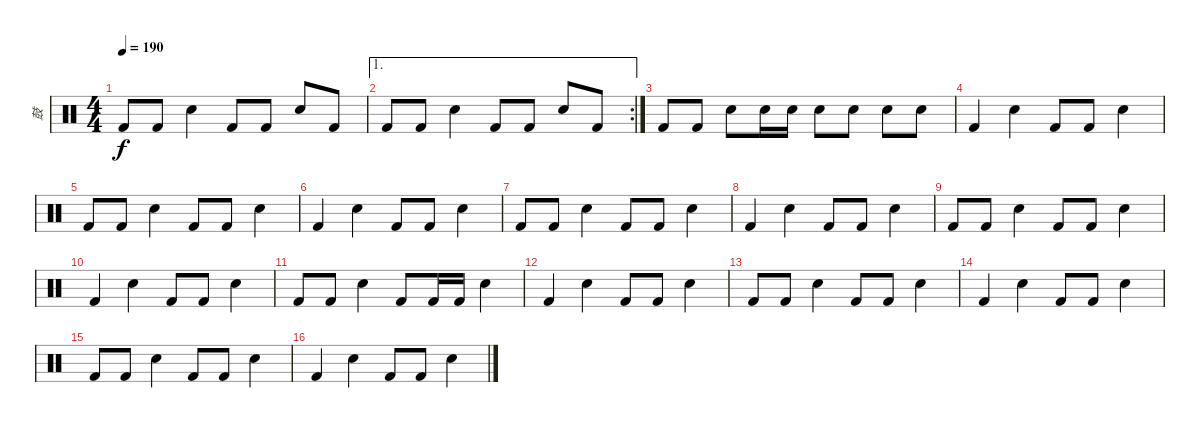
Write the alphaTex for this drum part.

\track ("鼓" "鼓") {instrument percussion}
\staff {score}
\articulation defaults
\ts (4 4)
\tempo 190
\clef neutral
\ks c "Kick (hit) 2".8{dy f} "Kick (hit) 2".8 "Electric Snare (hit)".4 "Kick (hit) 2".8 "Kick (hit) 2".8 "Electric Snare (hit)".8 "Kick (hit) 2".8
|
\ae 1
\rc 2 "Kick (hit) 2".8 "Kick (hit) 2".8 "Electric Snare (hit)".4 "Kick (hit) 2".8 "Kick (hit) 2".8 "Electric Snare (hit)".8 "Kick (hit) 2".8
|
"Kick (hit) 2".8 "Kick (hit) 2".8 "Electric Snare (hit)".8 "Electric Snare (hit)".16 "Electric Snare (hit)".16 "Electric Snare (hit)".8 "Electric Snare (hit)".8 "Electric Snare (hit)".8 "Electric Snare (hit)".8 |
"Kick (hit) 2".4 "Electric Snare (hit)".4 "Kick (hit) 2".8 "Kick (hit) 2".8 "Electric Snare (hit)".4 |
"Kick (hit) 2".8 "Kick (hit) 2".8 "Electric Snare (hit)".4 "Kick (hit) 2".8 "Kick (hit) 2".8 "Electric Snare (hit)".4 |
"Kick (hit) 2".4 "Electric Snare (hit)".4 "Kick (hit) 2".8 "Kick (hit) 2".8 "Electric Snare (hit)".4 |
"Kick (hit) 2".8 "Kick (hit) 2".8 "Electric Snare (hit)".4 "Kick (hit) 2".8 "Kick (hit) 2".8 "Electric Snare (hit)".4 |
"Kick (hit) 2".4 "Electric Snare (hit)".4 "Kick (hit) 2".8 "Kick (hit) 2".8 "Electric Snare (hit)".4 |
"Kick (hit) 2".8 "Kick (hit) 2".8 "Electric Snare (hit)".4 "Kick (hit) 2".8 "Kick (hit) 2".8 "Electric Snare (hit)".4 |
"Kick (hit) 2".4 "Electric Snare (hit)".4 "Kick (hit) 2".8 "Kick (hit) 2".8 "Electric Snare (hit)".4 |
"Kick (hit) 2".8 "Kick (hit) 2".8 "Electric Snare (hit)".4 "Kick (hit) 2".8 "Kick (hit) 2".16 "Kick (hit) 2".16 "Electric Snare (hit)".4 |
"Kick (hit) 2".4 "Electric Snare (hit)".4 "Kick (hit) 2".8 "Kick (hit) 2".8 "Electric Snare (hit)".4 |
"Kick (hit) 2".8 "Kick (hit) 2".8 "Electric Snare (hit)".4 "Kick (hit) 2".8 "Kick (hit) 2".8 "Electric Snare (hit)".4 |
"Kick (hit) 2".4 "Electric Snare (hit)".4 "Kick (hit) 2".8 "Kick (hit) 2".8 "Electric Snare (hit)".4 |
"Kick (hit) 2".8 "Kick (hit) 2".8 "Electric Snare (hit)".4 "Kick (hit) 2".8 "Kick (hit) 2".8 "Electric Snare (hit)".4 |
"Kick (hit) 2".4 "Electric Snare (hit)".4 "Kick (hit) 2".8 "Kick (hit) 2".8 "Electric Snare (hit)".4
